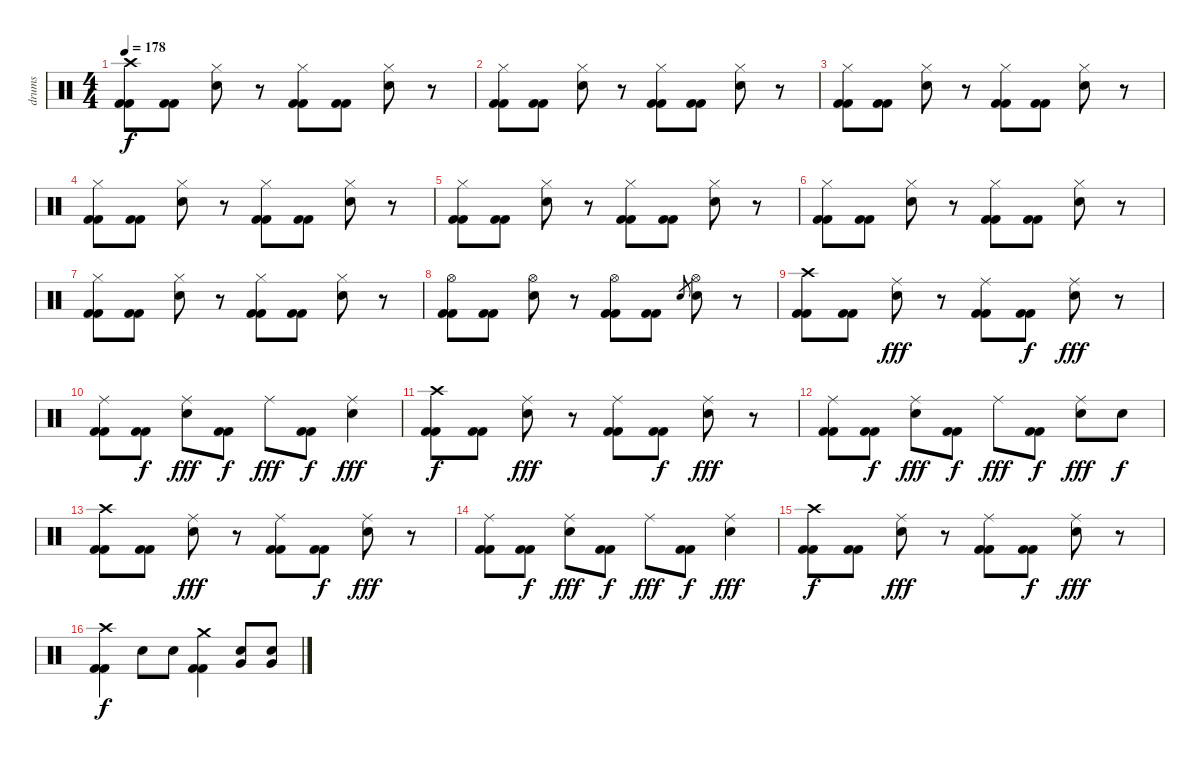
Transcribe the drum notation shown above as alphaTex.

\track ("drums" "drums") {instrument percussion}
\staff {score}
\articulation defaults
\ts (4 4)
\tempo 178
\clef neutral
\ks c
("Crash high (hit)" "Kick (hit) 2" "Kick (hit) 2").8{dy f} ("Kick (hit) 2" "Kick (hit) 2").8 ("Hi-Hat (closed)" "Electric Snare (hit)").8 r.8 ("Hi-Hat (closed)" "Kick (hit) 2" "Kick (hit) 2").8 ("Kick (hit) 2" "Kick (hit) 2").8 ("Hi-Hat (closed)" "Electric Snare (hit)").8 r.8 |
("Hi-Hat (closed)" "Kick (hit) 2" "Kick (hit) 2").8 ("Kick (hit) 2" "Kick (hit) 2").8 ("Hi-Hat (closed)" "Electric Snare (hit)").8 r.8 ("Hi-Hat (closed)" "Kick (hit) 2" "Kick (hit) 2").8 ("Kick (hit) 2" "Kick (hit) 2").8 ("Hi-Hat (closed)" "Electric Snare (hit)").8 r.8 |
("Hi-Hat (closed)" "Kick (hit) 2" "Kick (hit) 2").8 ("Kick (hit) 2" "Kick (hit) 2").8 ("Hi-Hat (closed)" "Electric Snare (hit)").8 r.8 ("Hi-Hat (closed)" "Kick (hit) 2" "Kick (hit) 2").8 ("Kick (hit) 2" "Kick (hit) 2").8 ("Hi-Hat (closed)" "Electric Snare (hit)").8 r.8 |
("Hi-Hat (closed)" "Kick (hit) 2" "Kick (hit) 2").8 ("Kick (hit) 2" "Kick (hit) 2").8 ("Hi-Hat (closed)" "Electric Snare (hit)").8 r.8 ("Hi-Hat (closed)" "Kick (hit) 2" "Kick (hit) 2").8 ("Kick (hit) 2" "Kick (hit) 2").8 ("Hi-Hat (closed)" "Electric Snare (hit)").8 r.8 |
("Hi-Hat (closed)" "Kick (hit) 2" "Kick (hit) 2").8 ("Kick (hit) 2" "Kick (hit) 2").8 ("Hi-Hat (closed)" "Electric Snare (hit)").8 r.8 ("Hi-Hat (closed)" "Kick (hit) 2" "Kick (hit) 2").8 ("Kick (hit) 2" "Kick (hit) 2").8 ("Hi-Hat (closed)" "Electric Snare (hit)").8 r.8 |
("Hi-Hat (closed)" "Kick (hit) 2" "Kick (hit) 2").8 ("Kick (hit) 2" "Kick (hit) 2").8 ("Hi-Hat (closed)" "Electric Snare (hit)").8 r.8 ("Hi-Hat (closed)" "Kick (hit) 2" "Kick (hit) 2").8 ("Kick (hit) 2" "Kick (hit) 2").8 ("Hi-Hat (closed)" "Electric Snare (hit)").8 r.8 |
("Hi-Hat (closed)" "Kick (hit) 2" "Kick (hit) 2").8 ("Kick (hit) 2" "Kick (hit) 2").8 ("Hi-Hat (closed)" "Electric Snare (hit)").8 r.8 ("Hi-Hat (closed)" "Kick (hit) 2" "Kick (hit) 2").8 ("Kick (hit) 2" "Kick (hit) 2").8 ("Hi-Hat (closed)" "Electric Snare (hit)").8 r.8 |
("Hi-Hat (open)" "Kick (hit) 2" "Kick (hit) 2").8 ("Kick (hit) 2" "Kick (hit) 2").8 ("Hi-Hat (open)" "Electric Snare (hit)").8 r.8 ("Hi-Hat (open)" "Kick (hit) 2" "Kick (hit) 2").8 ("Kick (hit) 2" "Kick (hit) 2").8 "Electric Snare (hit)".8{gr} ("Hi-Hat (open)" "Electric Snare (hit)").8 r.8 |
("Crash high (hit)" "Kick (hit) 2" "Kick (hit) 2").8 ("Kick (hit) 2" "Kick (hit) 2").8 ("Ride (middle)" "Electric Snare (hit)").8{dy fff} r.8 ("Ride (middle)" "Kick (hit) 2" "Kick (hit) 2").8 ("Kick (hit) 2" "Kick (hit) 2").8{dy f} ("Ride (middle)" "Electric Snare (hit)").8{dy fff} r.8 |
("Ride (middle)" "Kick (hit) 2" "Kick (hit) 2").8 ("Kick (hit) 2" "Kick (hit) 2").8{dy f} ("Ride (middle)" "Electric Snare (hit)").8{dy fff} ("Kick (hit) 2" "Kick (hit) 2").8{dy f} "Ride (middle)".8{dy fff} ("Kick (hit) 2" "Kick (hit) 2").8{dy f} ("Ride (middle)" "Electric Snare (hit)").4{dy fff} |
("Crash high (hit)" "Kick (hit) 2" "Kick (hit) 2").8{dy f} ("Kick (hit) 2" "Kick (hit) 2").8 ("Ride (middle)" "Electric Snare (hit)").8{dy fff} r.8 ("Ride (middle)" "Kick (hit) 2" "Kick (hit) 2").8 ("Kick (hit) 2" "Kick (hit) 2").8{dy f} ("Ride (middle)" "Electric Snare (hit)").8{dy fff} r.8 |
("Ride (middle)" "Kick (hit) 2" "Kick (hit) 2").8 ("Kick (hit) 2" "Kick (hit) 2").8{dy f} ("Ride (middle)" "Electric Snare (hit)").8{dy fff} ("Kick (hit) 2" "Kick (hit) 2").8{dy f} "Ride (middle)".8{dy fff} ("Kick (hit) 2" "Kick (hit) 2").8{dy f} ("Ride (middle)" "Electric Snare (hit)").8{dy fff} "Electric Snare (hit)".8{dy f} |
("Crash high (hit)" "Kick (hit) 2" "Kick (hit) 2").8 ("Kick (hit) 2" "Kick (hit) 2").8 ("Ride (middle)" "Electric Snare (hit)").8{dy fff} r.8 ("Ride (middle)" "Kick (hit) 2" "Kick (hit) 2").8 ("Kick (hit) 2" "Kick (hit) 2").8{dy f} ("Ride (middle)" "Electric Snare (hit)").8{dy fff} r.8 |
("Ride (middle)" "Kick (hit) 2" "Kick (hit) 2").8 ("Kick (hit) 2" "Kick (hit) 2").8{dy f} ("Ride (middle)" "Electric Snare (hit)").8{dy fff} ("Kick (hit) 2" "Kick (hit) 2").8{dy f} "Ride (middle)".8{dy fff} ("Kick (hit) 2" "Kick (hit) 2").8{dy f} ("Ride (middle)" "Electric Snare (hit)").4{dy fff} |
("Crash high (hit)" "Kick (hit) 2" "Kick (hit) 2").8{dy f} ("Kick (hit) 2" "Kick (hit) 2").8 ("Ride (middle)" "Electric Snare (hit)").8{dy fff} r.8 ("Ride (middle)" "Kick (hit) 2" "Kick (hit) 2").8 ("Kick (hit) 2" "Kick (hit) 2").8{dy f} ("Ride (middle)" "Electric Snare (hit)").8{dy fff} r.8 |
("Crash high (hit)" "Kick (hit) 2" "Kick (hit) 2").4{dy f} "Electric Snare (hit)".8 "Electric Snare (hit)".8 ("Crash medium (hit)" "Kick (hit) 2" "Kick (hit) 2").4 ("Very Low Tom (hit)" "Electric Snare (hit)").8 ("Very Low Tom (hit)" "Electric Snare (hit)").8
